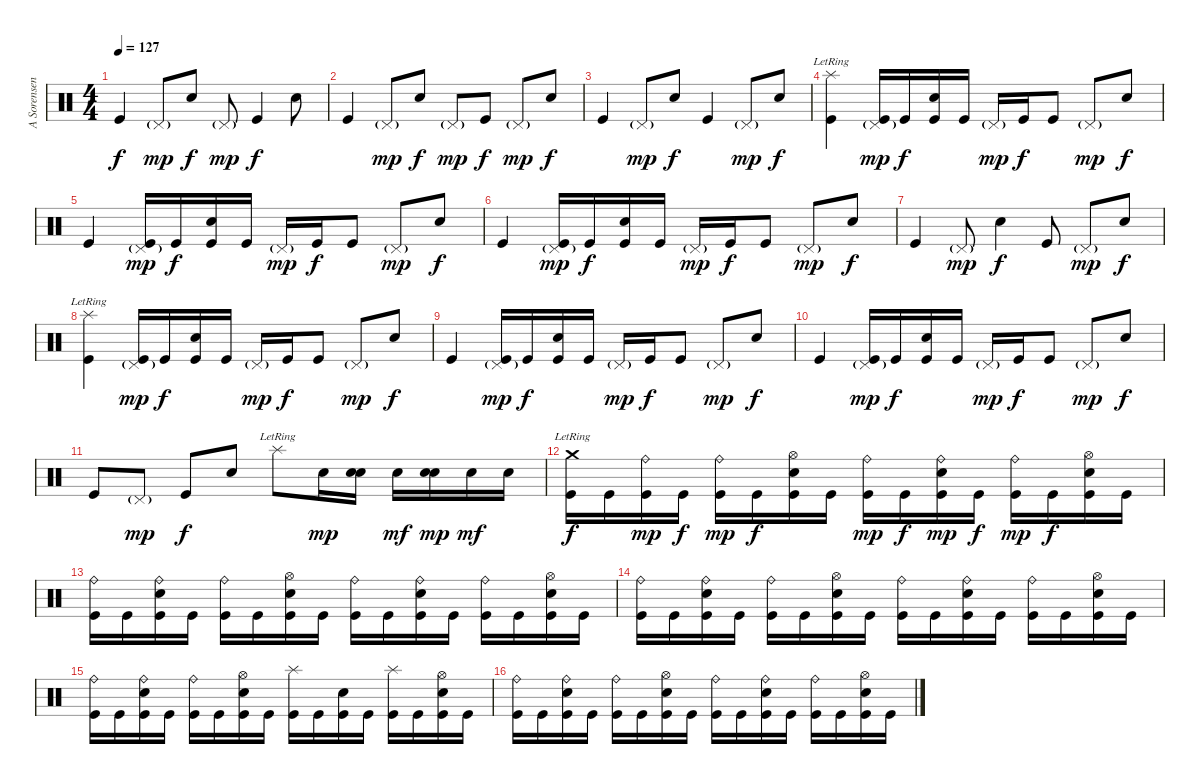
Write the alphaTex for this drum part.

\track ("A Sorensen" "A Sorensen") {instrument percussion}
\staff {score}
\articulation defaults
\ts (4 4)
\tempo 127
\clef neutral
\ks c "Kick (hit)".4{dy f} "Pedal Hi-Hat (hit)"{g}.8{dy mp} "Electric Snare (hit)".8{dy f} "Pedal Hi-Hat (hit)"{g}.8{dy mp} "Kick (hit)".4{dy f} "Electric Snare (hit)".8
|
"Kick (hit)".4 "Pedal Hi-Hat (hit)"{g}.8{dy mp} "Electric Snare (hit)".8{dy f} "Pedal Hi-Hat (hit)"{g}.8{dy mp} "Kick (hit)".8{dy f} "Pedal Hi-Hat (hit)"{g}.8{dy mp} "Electric Snare (hit)".8{dy f} |
"Kick (hit)".4 "Pedal Hi-Hat (hit)"{g}.8{dy mp} "Electric Snare (hit)".8{dy f} "Kick (hit)".4 "Pedal Hi-Hat (hit)"{g}.8{dy mp} "Electric Snare (hit)".8{dy f} |
("Splash (hit)"{lr} "Kick (hit)").4 ("Pedal Hi-Hat (hit)"{g} "Kick (hit)").16{dy mp} "Kick (hit)".16{dy f} ("Electric Snare (hit)" "Kick (hit)").16 "Kick (hit)".16 "Pedal Hi-Hat (hit)"{g}.16{dy mp} "Kick (hit)".16{dy f} "Kick (hit)".8 "Pedal Hi-Hat (hit)"{g}.8{dy mp} "Electric Snare (hit)".8{dy f} |
"Kick (hit)".4 ("Pedal Hi-Hat (hit)"{g} "Kick (hit)").16{dy mp} "Kick (hit)".16{dy f} ("Electric Snare (hit)" "Kick (hit)").16 "Kick (hit)".16 "Pedal Hi-Hat (hit)"{g}.16{dy mp} "Kick (hit)".16{dy f} "Kick (hit)".8 "Pedal Hi-Hat (hit)"{g}.8{dy mp} "Electric Snare (hit)".8{dy f} |
"Kick (hit)".4 ("Pedal Hi-Hat (hit)"{g} "Kick (hit)").16{dy mp} "Kick (hit)".16{dy f} ("Electric Snare (hit)" "Kick (hit)").16 "Kick (hit)".16 "Pedal Hi-Hat (hit)"{g}.16{dy mp} "Kick (hit)".16{dy f} "Kick (hit)".8 "Pedal Hi-Hat (hit)"{g}.8{dy mp} "Electric Snare (hit)".8{dy f} |
"Kick (hit)".4 "Pedal Hi-Hat (hit)"{g}.8{dy mp} "Electric Snare (hit)".4{dy f} "Kick (hit)".8 "Pedal Hi-Hat (hit)"{g}.8{dy mp} "Electric Snare (hit)".8{dy f} |
("Splash (hit)"{lr} "Kick (hit)").4 ("Pedal Hi-Hat (hit)"{g} "Kick (hit)").16{dy mp} "Kick (hit)".16{dy f} ("Electric Snare (hit)" "Kick (hit)").16 "Kick (hit)".16 "Pedal Hi-Hat (hit)"{g}.16{dy mp} "Kick (hit)".16{dy f} "Kick (hit)".8 "Pedal Hi-Hat (hit)"{g}.8{dy mp} "Electric Snare (hit)".8{dy f} |
"Kick (hit)".4 ("Pedal Hi-Hat (hit)"{g} "Kick (hit)").16{dy mp} "Kick (hit)".16{dy f} ("Electric Snare (hit)" "Kick (hit)").16 "Kick (hit)".16 "Pedal Hi-Hat (hit)"{g}.16{dy mp} "Kick (hit)".16{dy f} "Kick (hit)".8 "Pedal Hi-Hat (hit)"{g}.8{dy mp} "Electric Snare (hit)".8{dy f} |
"Kick (hit)".4 ("Pedal Hi-Hat (hit)"{g} "Kick (hit)").16{dy mp} "Kick (hit)".16{dy f} ("Electric Snare (hit)" "Kick (hit)").16 "Kick (hit)".16 "Pedal Hi-Hat (hit)"{g}.16{dy mp} "Kick (hit)".16{dy f} "Kick (hit)".8 "Pedal Hi-Hat (hit)"{g}.8{dy mp} "Electric Snare (hit)".8{dy f} |
"Kick (hit)".8 "Pedal Hi-Hat (hit)"{g}.8{dy mp} "Kick (hit)".8{dy f} "Electric Snare (hit)".8 "Splash (hit)"{lr}.8 "Snare (hit) 2".16{dy mp} ("Electric Snare (hit)" "Snare (hit) 2").16 "Snare (hit) 2".16{dy mf} ("Electric Snare (hit)" "Snare (hit) 2").16{dy mp} "Snare (hit) 2".16{dy mf} "Snare (hit) 2".16 |
("Crash medium (hit)"{lr} "Kick (hit)").16{dy f} "Kick (hit)".16 ("Ride (bell)" "Kick (hit)").16{dy mp} "Kick (hit)".16{dy f} ("Ride (bell)" "Kick (hit)").16{dy mp} "Kick (hit)".16{dy f} ("Hi-Hat (open)" "Electric Snare (hit)" "Kick (hit)").16 "Kick (hit)".16 ("Ride (bell)" "Kick (hit)").16{dy mp} "Kick (hit)".16{dy f} ("Ride (bell)" "Snare (hit) 2" "Kick (hit)").16{dy mp} "Kick (hit)".16{dy f} ("Ride (bell)" "Kick (hit)").16{dy mp} "Kick (hit)".16{dy f} ("Hi-Hat (open)" "Electric Snare (hit)" "Kick (hit)").16 "Kick (hit)".16 |
("Ride (bell)" "Kick (hit)").16 "Kick (hit)".16 ("Ride (bell)" "Snare (hit) 2" "Kick (hit)").16 "Kick (hit)".16 ("Ride (bell)" "Kick (hit)").16 "Kick (hit)".16 ("Hi-Hat (open)" "Electric Snare (hit)" "Kick (hit)").16 "Kick (hit)".16 ("Ride (bell)" "Kick (hit)").16 "Kick (hit)".16 ("Ride (bell)" "Snare (hit) 2" "Kick (hit)").16 "Kick (hit)".16 ("Ride (bell)" "Kick (hit)").16 "Kick (hit)".16 ("Hi-Hat (open)" "Electric Snare (hit)" "Kick (hit)").16 "Kick (hit)".16 |
("Ride (bell)" "Kick (hit)").16 "Kick (hit)".16 ("Ride (bell)" "Snare (hit) 2" "Kick (hit)").16 "Kick (hit)".16 ("Ride (bell)" "Kick (hit)").16 "Kick (hit)".16 ("Hi-Hat (open)" "Electric Snare (hit)" "Kick (hit)").16 "Kick (hit)".16 ("Ride (bell)" "Kick (hit)").16 "Kick (hit)".16 ("Ride (bell)" "Snare (hit) 2" "Kick (hit)").16 "Kick (hit)".16 ("Ride (bell)" "Kick (hit)").16 "Kick (hit)".16 ("Hi-Hat (open)" "Electric Snare (hit)" "Kick (hit)").16 "Kick (hit)".16 |
("Ride (bell)" "Kick (hit)").16 "Kick (hit)".16 ("Ride (bell)" "Snare (hit) 2" "Kick (hit)").16 "Kick (hit)".16 ("Ride (bell)" "Kick (hit)").16 "Kick (hit)".16 ("Hi-Hat (open)" "Electric Snare (hit)" "Kick (hit)").16 "Kick (hit)".16 ("Splash (hit)" "Kick (hit)").16 "Kick (hit)".16 ("Snare (hit) 2" "Kick (hit)").16 "Kick (hit)".16 ("Splash (hit)" "Kick (hit)").16 "Kick (hit)".16 ("Hi-Hat (open)" "Electric Snare (hit)" "Kick (hit)").16 "Kick (hit)".16 |
("Ride (bell)" "Kick (hit)").16 "Kick (hit)".16 ("Ride (bell)" "Snare (hit) 2" "Kick (hit)").16 "Kick (hit)".16 ("Ride (bell)" "Kick (hit)").16 "Kick (hit)".16 ("Hi-Hat (open)" "Electric Snare (hit)" "Kick (hit)").16 "Kick (hit)".16 ("Ride (bell)" "Kick (hit)").16 "Kick (hit)".16 ("Ride (bell)" "Snare (hit) 2" "Kick (hit)").16 "Kick (hit)".16 ("Ride (bell)" "Kick (hit)").16 "Kick (hit)".16 ("Hi-Hat (open)" "Electric Snare (hit)" "Kick (hit)").16 "Kick (hit)".16
